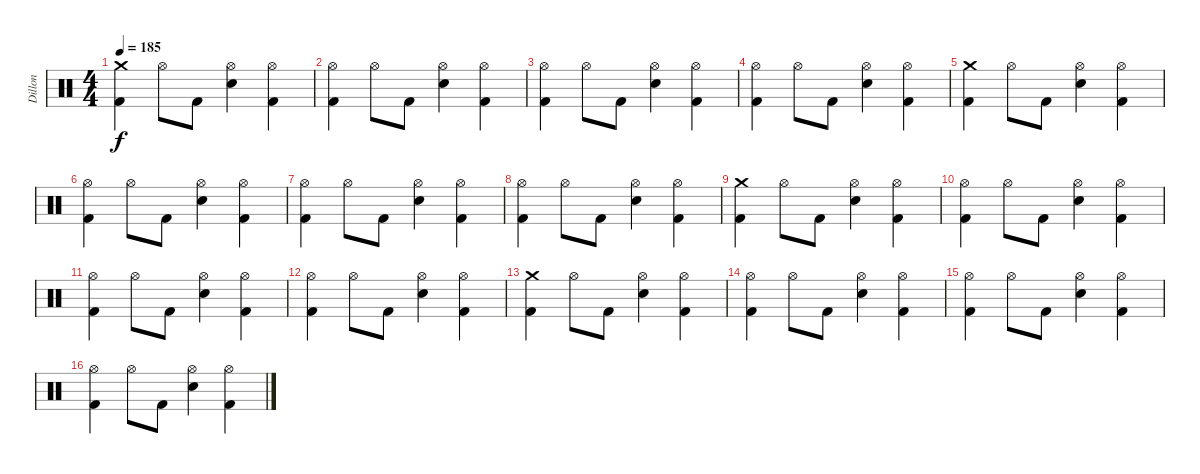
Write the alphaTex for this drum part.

\track ("Dillon" "Dillon") {instrument percussion}
\staff {score}
\articulation defaults
\ts (4 4)
\tempo 185
\clef neutral
\ks c
("Crash medium (hit)" "Kick (hit) 2").4{dy f} "Hi-Hat (open)".8 "Kick (hit) 2".8 ("Hi-Hat (open)" "Electric Snare (hit)").4 ("Hi-Hat (open)" "Kick (hit) 2").4 |
("Hi-Hat (open)" "Kick (hit) 2").4 "Hi-Hat (open)".8 "Kick (hit) 2".8 ("Hi-Hat (open)" "Electric Snare (hit)").4 ("Hi-Hat (open)" "Kick (hit) 2").4 |
("Hi-Hat (open)" "Kick (hit) 2").4 "Hi-Hat (open)".8 "Kick (hit) 2".8 ("Hi-Hat (open)" "Electric Snare (hit)").4 ("Hi-Hat (open)" "Kick (hit) 2").4 |
("Hi-Hat (open)" "Kick (hit) 2").4 "Hi-Hat (open)".8 "Kick (hit) 2".8 ("Hi-Hat (open)" "Electric Snare (hit)").4 ("Hi-Hat (open)" "Kick (hit) 2").4 |
("Crash medium (hit)" "Kick (hit) 2").4 "Hi-Hat (open)".8 "Kick (hit) 2".8 ("Hi-Hat (open)" "Electric Snare (hit)").4 ("Hi-Hat (open)" "Kick (hit) 2").4 |
("Hi-Hat (open)" "Kick (hit) 2").4 "Hi-Hat (open)".8 "Kick (hit) 2".8 ("Hi-Hat (open)" "Electric Snare (hit)").4 ("Hi-Hat (open)" "Kick (hit) 2").4 |
("Hi-Hat (open)" "Kick (hit) 2").4 "Hi-Hat (open)".8 "Kick (hit) 2".8 ("Hi-Hat (open)" "Electric Snare (hit)").4 ("Hi-Hat (open)" "Kick (hit) 2").4 |
("Hi-Hat (open)" "Kick (hit) 2").4 "Hi-Hat (open)".8 "Kick (hit) 2".8 ("Hi-Hat (open)" "Electric Snare (hit)").4 ("Hi-Hat (open)" "Kick (hit) 2").4 |
("Crash medium (hit)" "Kick (hit) 2").4 "Hi-Hat (open)".8 "Kick (hit) 2".8 ("Hi-Hat (open)" "Electric Snare (hit)").4 ("Hi-Hat (open)" "Kick (hit) 2").4 |
("Hi-Hat (open)" "Kick (hit) 2").4 "Hi-Hat (open)".8 "Kick (hit) 2".8 ("Hi-Hat (open)" "Electric Snare (hit)").4 ("Hi-Hat (open)" "Kick (hit) 2").4 |
("Hi-Hat (open)" "Kick (hit) 2").4 "Hi-Hat (open)".8 "Kick (hit) 2".8 ("Hi-Hat (open)" "Electric Snare (hit)").4 ("Hi-Hat (open)" "Kick (hit) 2").4 |
("Hi-Hat (open)" "Kick (hit) 2").4 "Hi-Hat (open)".8 "Kick (hit) 2".8 ("Hi-Hat (open)" "Electric Snare (hit)").4 ("Hi-Hat (open)" "Kick (hit) 2").4 |
("Crash medium (hit)" "Kick (hit) 2").4 "Hi-Hat (open)".8 "Kick (hit) 2".8 ("Hi-Hat (open)" "Electric Snare (hit)").4 ("Hi-Hat (open)" "Kick (hit) 2").4 |
("Hi-Hat (open)" "Kick (hit) 2").4 "Hi-Hat (open)".8 "Kick (hit) 2".8 ("Hi-Hat (open)" "Electric Snare (hit)").4 ("Hi-Hat (open)" "Kick (hit) 2").4 |
("Hi-Hat (open)" "Kick (hit) 2").4 "Hi-Hat (open)".8 "Kick (hit) 2".8 ("Hi-Hat (open)" "Electric Snare (hit)").4 ("Hi-Hat (open)" "Kick (hit) 2").4 |
("Hi-Hat (open)" "Kick (hit) 2").4 "Hi-Hat (open)".8 "Kick (hit) 2".8 ("Hi-Hat (open)" "Electric Snare (hit)").4 ("Hi-Hat (open)" "Kick (hit) 2").4
